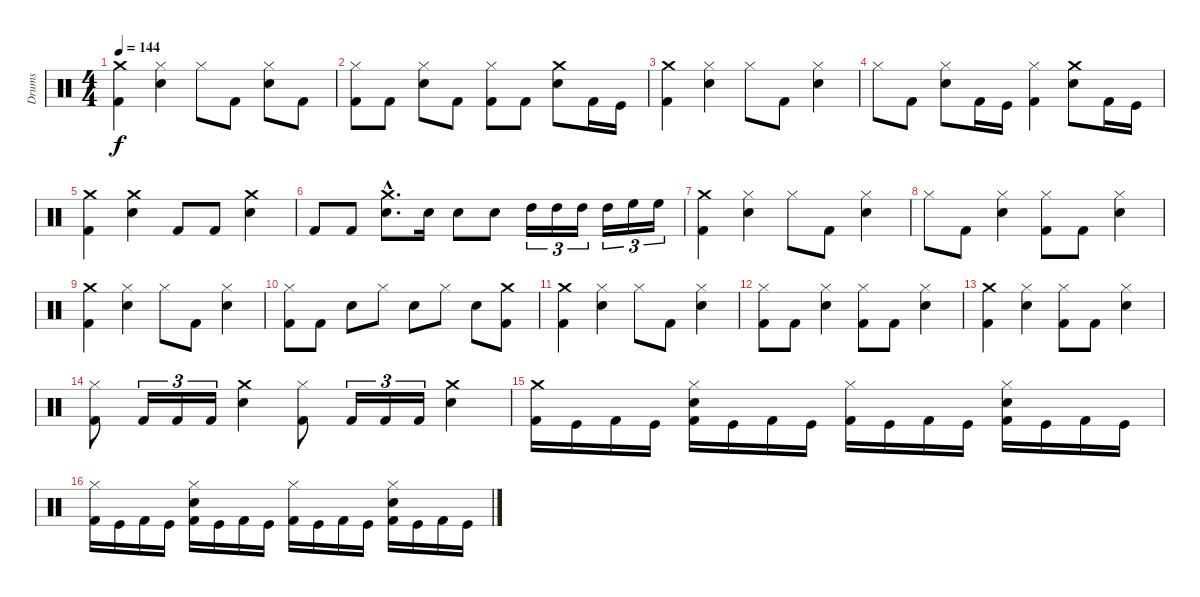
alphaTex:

\track ("Drums" "Drums") {instrument percussion}
\staff {score}
\articulation defaults
\ts (4 4)
\tempo 144
\clef neutral
\ks c
("Kick (hit) 2" "Crash medium (hit)").4{dy f} ("Snare (hit) 2" "Hi-Hat (closed)").4 "Hi-Hat (closed)".8 "Kick (hit) 2".8 ("Hi-Hat (closed)" "Snare (hit) 2").8 "Kick (hit) 2".8 |
("Kick (hit) 2" "Hi-Hat (closed)").8 "Kick (hit) 2".8 ("Snare (hit) 2" "Hi-Hat (closed)").8 "Kick (hit) 2".8 ("Kick (hit) 2" "Hi-Hat (closed)").8 "Kick (hit) 2".8 ("Crash medium (hit)" "Snare (hit) 2").8 "Kick (hit) 2".16 "Kick (hit)".16 |
("Kick (hit) 2" "Crash medium (hit)").4 ("Snare (hit) 2" "Hi-Hat (closed)").4 "Hi-Hat (closed)".8 "Kick (hit) 2".8 ("Snare (hit) 2" "Hi-Hat (closed)").4 |
"Hi-Hat (closed)".8 "Kick (hit) 2".8 ("Snare (hit) 2" "Hi-Hat (closed)").8 "Kick (hit) 2".16 "Kick (hit)".16 ("Kick (hit) 2" "Hi-Hat (closed)").4 ("Crash medium (hit)" "Snare (hit) 2").8 "Kick (hit) 2".16 "Kick (hit)".16 |
("Kick (hit) 2" "Crash medium (hit)").4 ("Snare (hit) 2" "Crash medium (hit)").4 "Kick (hit) 2".8 "Kick (hit) 2".8 ("Crash medium (hit)" "Snare (hit) 2").4 |
"Kick (hit) 2".8 "Kick (hit) 2".8 ("Crash medium (hit)"{hac} "Snare (hit) 2"{hac}).8{d} "Snare (hit) 2".16 "Snare (hit) 2".8 "Snare (hit) 2".8 "High Tom (hit)".16{tu (3 2)} "High Tom (hit)".16{tu (3 2)} "High Tom (hit)".16{tu (3 2)} "High Tom (hit)".16{tu (3 2)} "High Floor Tom (hit)".16{tu (3 2)} "High Floor Tom (hit)".16{tu (3 2)} |
("Kick (hit) 2" "Crash medium (hit)").4 ("Snare (hit) 2" "Hi-Hat (closed)").4 "Hi-Hat (closed)".8 "Kick (hit) 2".8 ("Snare (hit) 2" "Hi-Hat (closed)").4 |
"Hi-Hat (closed)".8 "Kick (hit) 2".8 ("Snare (hit) 2" "Hi-Hat (closed)").4 ("Kick (hit) 2" "Hi-Hat (closed)").8 "Kick (hit) 2".8 ("Snare (hit) 2" "Hi-Hat (closed)").4 |
("Kick (hit) 2" "Crash medium (hit)").4 ("Snare (hit) 2" "Hi-Hat (closed)").4 "Hi-Hat (closed)".8 "Kick (hit) 2".8 ("Snare (hit) 2" "Hi-Hat (closed)").4 |
("Kick (hit) 2" "Hi-Hat (closed)").8 "Kick (hit) 2".8 "Snare (hit) 2".8 "Hi-Hat (closed)".8 "Snare (hit) 2".8 "Hi-Hat (closed)".8 "Snare (hit) 2".8 ("Kick (hit) 2" "Crash medium (hit)").8 |
("Kick (hit) 2" "Crash medium (hit)").4 ("Snare (hit) 2" "Hi-Hat (closed)").4 "Hi-Hat (closed)".8 "Kick (hit) 2".8 ("Snare (hit) 2" "Hi-Hat (closed)").4 |
("Hi-Hat (closed)" "Kick (hit) 2").8 "Kick (hit) 2".8 ("Snare (hit) 2" "Hi-Hat (closed)").4 ("Hi-Hat (closed)" "Kick (hit) 2").8 "Kick (hit) 2".8 ("Snare (hit) 2" "Hi-Hat (closed)").4 |
("Kick (hit) 2" "Crash medium (hit)").4 ("Snare (hit) 2" "Hi-Hat (closed)").4 ("Hi-Hat (closed)" "Kick (hit) 2").8 "Kick (hit) 2".8 ("Snare (hit) 2" "Hi-Hat (closed)").4 |
("Kick (hit) 2" "Hi-Hat (closed)").8 "Kick (hit) 2".16{tu (3 2)} "Kick (hit) 2".16{tu (3 2)} "Kick (hit) 2".16{tu (3 2)} ("Crash medium (hit)" "Snare (hit) 2").4 ("Kick (hit) 2" "Hi-Hat (closed)").8 "Kick (hit) 2".16{tu (3 2)} "Kick (hit) 2".16{tu (3 2)} "Kick (hit) 2".16{tu (3 2)} ("Snare (hit) 2" "Crash medium (hit)").4 |
("Crash medium (hit)" "Kick (hit) 2").16 "Kick (hit)".16 "Kick (hit) 2".16 "Kick (hit)".16 ("Snare (hit) 2" "Hi-Hat (closed)" "Kick (hit) 2").16 "Kick (hit)".16 "Kick (hit) 2".16 "Kick (hit)".16 ("Hi-Hat (closed)" "Kick (hit) 2").16 "Kick (hit)".16 "Kick (hit) 2".16 "Kick (hit)".16 ("Snare (hit) 2" "Hi-Hat (closed)" "Kick (hit) 2").16 "Kick (hit)".16 "Kick (hit) 2".16 "Kick (hit)".16 |
("Hi-Hat (closed)" "Kick (hit) 2").16 "Kick (hit)".16 "Kick (hit) 2".16 "Kick (hit)".16 ("Snare (hit) 2" "Hi-Hat (closed)" "Kick (hit) 2").16 "Kick (hit)".16 "Kick (hit) 2".16 "Kick (hit)".16 ("Hi-Hat (closed)" "Kick (hit) 2").16 "Kick (hit)".16 "Kick (hit) 2".16 "Kick (hit)".16 ("Snare (hit) 2" "Hi-Hat (closed)" "Kick (hit) 2").16 "Kick (hit)".16 "Kick (hit) 2".16 "Kick (hit)".16
